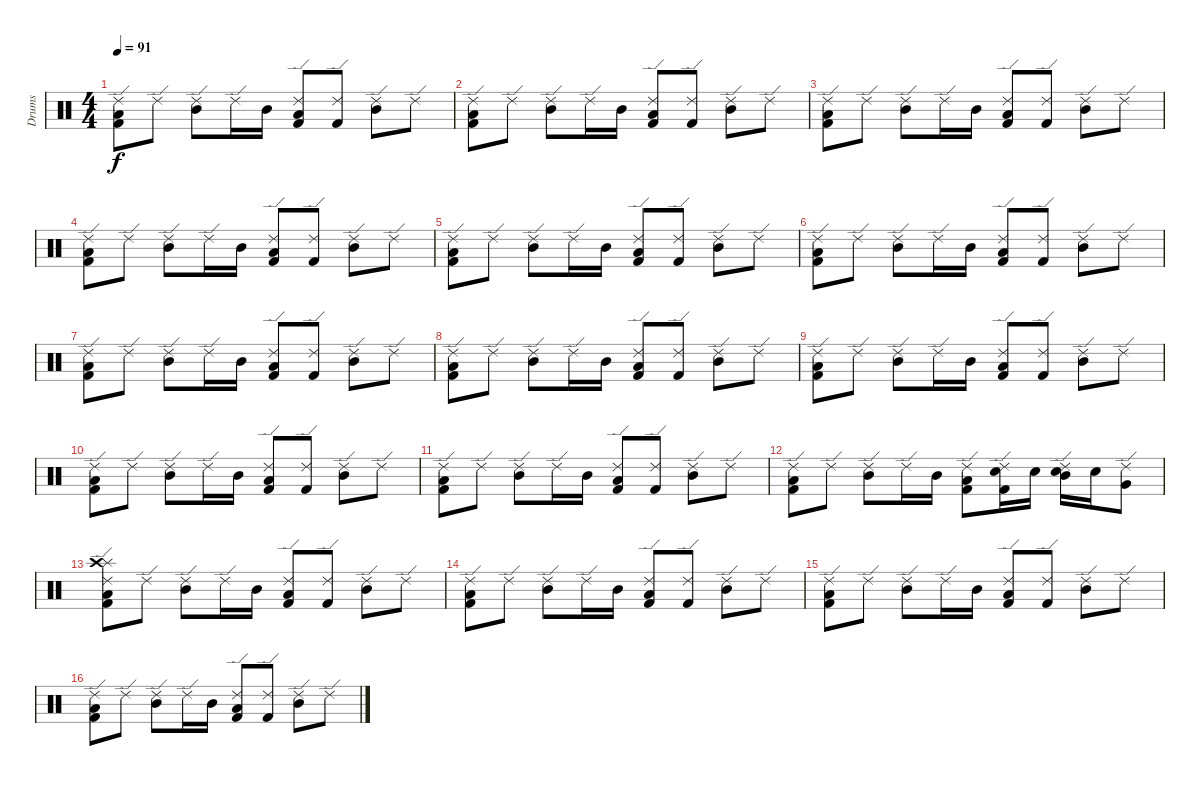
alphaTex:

\track ("Drums" "Drums") {instrument percussion}
\staff {score}
\articulation defaults
\ts (4 4)
\tempo 91
\clef neutral
\ks c
("Ride (edge) 2" "Kick (hit) 2" "Low Tom (hit)").8{dy f} "Ride (edge) 2".8 ("Ride (edge) 2" "Mid Tom (hit)").8 "Ride (edge) 2".16 "Mid Tom (hit)".16 ("Ride (edge) 2" "Kick (hit) 2" "Low Tom (hit)").8 ("Ride (edge) 2" "Kick (hit) 2").8 ("Ride (edge) 2" "Mid Tom (hit)").8 "Ride (edge) 2".8 |
("Ride (edge) 2" "Kick (hit) 2" "Low Tom (hit)").8 "Ride (edge) 2".8 ("Ride (edge) 2" "Mid Tom (hit)").8 "Ride (edge) 2".16 "Mid Tom (hit)".16 ("Ride (edge) 2" "Kick (hit) 2" "Low Tom (hit)").8 ("Ride (edge) 2" "Kick (hit) 2").8 ("Ride (edge) 2" "Mid Tom (hit)").8 "Ride (edge) 2".8 |
("Ride (edge) 2" "Kick (hit) 2" "Low Tom (hit)").8 "Ride (edge) 2".8 ("Ride (edge) 2" "Mid Tom (hit)").8 "Ride (edge) 2".16 "Mid Tom (hit)".16 ("Ride (edge) 2" "Kick (hit) 2" "Low Tom (hit)").8 ("Ride (edge) 2" "Kick (hit) 2").8 ("Ride (edge) 2" "Mid Tom (hit)").8 "Ride (edge) 2".8 |
("Ride (edge) 2" "Kick (hit) 2" "Low Tom (hit)").8 "Ride (edge) 2".8 ("Ride (edge) 2" "Mid Tom (hit)").8 "Ride (edge) 2".16 "Mid Tom (hit)".16 ("Ride (edge) 2" "Kick (hit) 2" "Low Tom (hit)").8 ("Ride (edge) 2" "Kick (hit) 2").8 ("Ride (edge) 2" "Mid Tom (hit)").8 "Ride (edge) 2".8 |
("Ride (edge) 2" "Kick (hit) 2" "Low Tom (hit)").8 "Ride (edge) 2".8 ("Ride (edge) 2" "Mid Tom (hit)").8 "Ride (edge) 2".16 "Mid Tom (hit)".16 ("Ride (edge) 2" "Kick (hit) 2" "Low Tom (hit)").8 ("Ride (edge) 2" "Kick (hit) 2").8 ("Ride (edge) 2" "Mid Tom (hit)").8 "Ride (edge) 2".8 |
("Ride (edge) 2" "Kick (hit) 2" "Low Tom (hit)").8 "Ride (edge) 2".8 ("Ride (edge) 2" "Mid Tom (hit)").8 "Ride (edge) 2".16 "Mid Tom (hit)".16 ("Ride (edge) 2" "Kick (hit) 2" "Low Tom (hit)").8 ("Ride (edge) 2" "Kick (hit) 2").8 ("Ride (edge) 2" "Mid Tom (hit)").8 "Ride (edge) 2".8 |
("Ride (edge) 2" "Kick (hit) 2" "Low Tom (hit)").8 "Ride (edge) 2".8 ("Ride (edge) 2" "Mid Tom (hit)").8 "Ride (edge) 2".16 "Mid Tom (hit)".16 ("Ride (edge) 2" "Kick (hit) 2" "Low Tom (hit)").8 ("Ride (edge) 2" "Kick (hit) 2").8 ("Ride (edge) 2" "Mid Tom (hit)").8 "Ride (edge) 2".8 |
("Ride (edge) 2" "Kick (hit) 2" "Low Tom (hit)").8 "Ride (edge) 2".8 ("Ride (edge) 2" "Mid Tom (hit)").8 "Ride (edge) 2".16 "Mid Tom (hit)".16 ("Ride (edge) 2" "Kick (hit) 2" "Low Tom (hit)").8 ("Ride (edge) 2" "Kick (hit) 2").8 ("Ride (edge) 2" "Mid Tom (hit)").8 "Ride (edge) 2".8 |
("Ride (edge) 2" "Kick (hit) 2" "Low Tom (hit)").8 "Ride (edge) 2".8 ("Ride (edge) 2" "Mid Tom (hit)").8 "Ride (edge) 2".16 "Mid Tom (hit)".16 ("Ride (edge) 2" "Kick (hit) 2" "Low Tom (hit)").8 ("Ride (edge) 2" "Kick (hit) 2").8 ("Ride (edge) 2" "Mid Tom (hit)").8 "Ride (edge) 2".8 |
("Ride (edge) 2" "Kick (hit) 2" "Low Tom (hit)").8 "Ride (edge) 2".8 ("Ride (edge) 2" "Mid Tom (hit)").8 "Ride (edge) 2".16 "Mid Tom (hit)".16 ("Ride (edge) 2" "Kick (hit) 2" "Low Tom (hit)").8 ("Ride (edge) 2" "Kick (hit) 2").8 ("Ride (edge) 2" "Mid Tom (hit)").8 "Ride (edge) 2".8 |
("Ride (edge) 2" "Kick (hit) 2" "Low Tom (hit)").8 "Ride (edge) 2".8 ("Ride (edge) 2" "Mid Tom (hit)").8 "Ride (edge) 2".16 "Mid Tom (hit)".16 ("Ride (edge) 2" "Kick (hit) 2" "Low Tom (hit)").8 ("Ride (edge) 2" "Kick (hit) 2").8 ("Ride (edge) 2" "Mid Tom (hit)").8 "Ride (edge) 2".8 |
("Ride (edge) 2" "Kick (hit) 2" "Low Tom (hit)").8 "Ride (edge) 2".8 ("Ride (edge) 2" "Mid Tom (hit)").8 "Ride (edge) 2".16 "Mid Tom (hit)".16 ("Ride (edge) 2" "Kick (hit) 2" "Low Tom (hit)").8 ("Ride (edge) 2" "Kick (hit) 2" "Snare (hit) 2").16 "Snare (hit) 2".16 ("Ride (edge) 2" "Mid Tom (hit)" "Snare (hit) 2").16 "Snare (hit) 2".16 ("Ride (edge) 2" "Very Low Tom (hit)").8 |
("Ride (edge) 2" "Kick (hit) 2" "Low Tom (hit)" "Splash (hit)" "Crash high (hit)").8 "Ride (edge) 2".8 ("Ride (edge) 2" "Mid Tom (hit)").8 "Ride (edge) 2".16 "Mid Tom (hit)".16 ("Ride (edge) 2" "Kick (hit) 2" "Low Tom (hit)").8 ("Ride (edge) 2" "Kick (hit) 2").8 ("Ride (edge) 2" "Mid Tom (hit)").8 "Ride (edge) 2".8 |
("Ride (edge) 2" "Kick (hit) 2" "Low Tom (hit)").8 "Ride (edge) 2".8 ("Ride (edge) 2" "Mid Tom (hit)").8 "Ride (edge) 2".16 "Mid Tom (hit)".16 ("Ride (edge) 2" "Kick (hit) 2" "Low Tom (hit)").8 ("Ride (edge) 2" "Kick (hit) 2").8 ("Ride (edge) 2" "Mid Tom (hit)").8 "Ride (edge) 2".8 |
("Ride (edge) 2" "Kick (hit) 2" "Low Tom (hit)").8 "Ride (edge) 2".8 ("Ride (edge) 2" "Mid Tom (hit)").8 "Ride (edge) 2".16 "Mid Tom (hit)".16 ("Ride (edge) 2" "Kick (hit) 2" "Low Tom (hit)").8 ("Ride (edge) 2" "Kick (hit) 2").8 ("Ride (edge) 2" "Mid Tom (hit)").8 "Ride (edge) 2".8 |
("Ride (edge) 2" "Kick (hit) 2" "Low Tom (hit)").8 "Ride (edge) 2".8 ("Ride (edge) 2" "Mid Tom (hit)").8 "Ride (edge) 2".16 "Mid Tom (hit)".16 ("Ride (edge) 2" "Kick (hit) 2" "Low Tom (hit)").8 ("Ride (edge) 2" "Kick (hit) 2").8 ("Ride (edge) 2" "Mid Tom (hit)").8 "Ride (edge) 2".8
